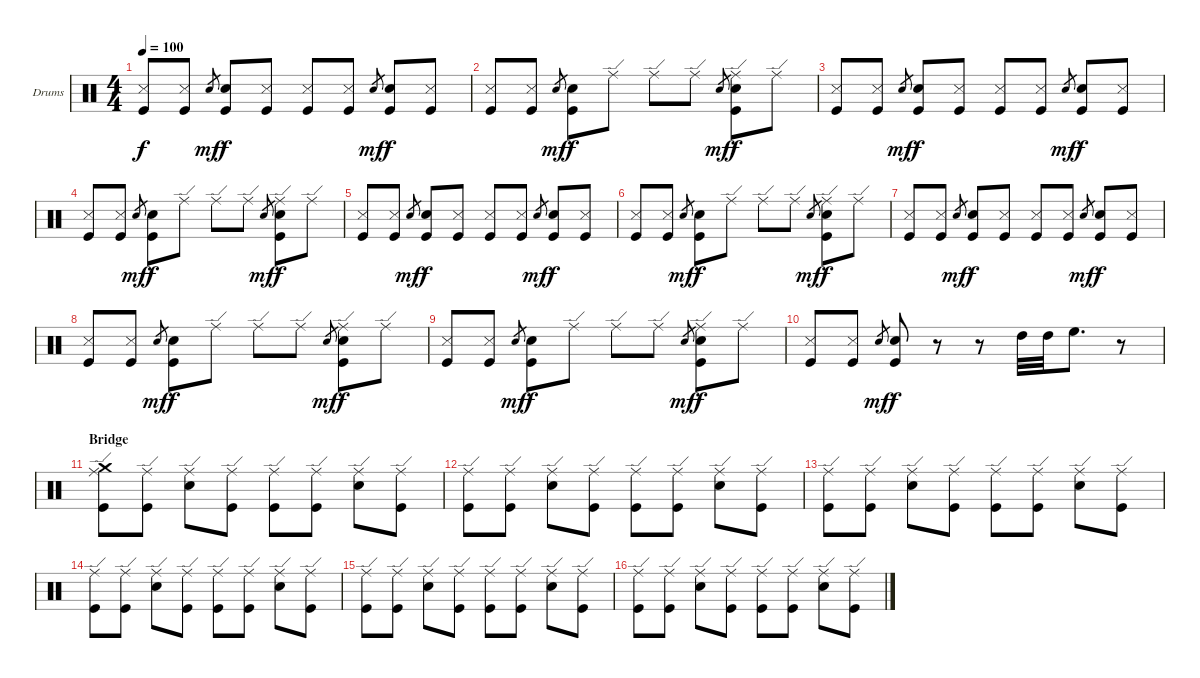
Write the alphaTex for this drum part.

\defaultSystemsLayout 4
\bracketExtendMode groupsimilarinstruments
\firstSystemTrackNameOrientation horizontal
\otherSystemsTrackNameOrientation horizontal
\track ("Drumkit" "Drums") {instrument percussion}
\staff {score}
\articulation defaults
\ts (4 4)
\tempo 100
\clef neutral
\scale
1.02648
\ks c
("Snare (side stick) 3" "Kick (hit)").8{dy f} ("Snare (side stick) 3" "Kick (hit)").8 "Snare (hit) 2".8{gr dy mf} ("Snare (hit) 2" "Kick (hit)").8{dy f} ("Snare (side stick) 3" "Kick (hit)").8 ("Snare (side stick) 3" "Kick (hit)").8 ("Snare (side stick) 3" "Kick (hit)").8 "Snare (hit) 2".8{gr dy mf} ("Snare (hit) 2" "Kick (hit)").8{dy f} ("Snare (side stick) 3" "Kick (hit)").8 |
\scale
0.973518 ("Snare (side stick) 3" "Kick (hit)").8 ("Snare (side stick) 3" "Kick (hit)").8 "Snare (hit) 2".8{gr dy mf} ("Snare (hit) 2" "Kick (hit)").8{dy f} "Ride (edge)".8 "Ride (edge)".8 "Ride (edge)".8 "Snare (hit) 2".8{gr dy mf} ("Ride (edge)" "Snare (hit) 2" "Kick (hit)").8{dy f} "Ride (edge)".8 |
\scale
1.02648 ("Snare (side stick) 3" "Kick (hit)").8 ("Snare (side stick) 3" "Kick (hit)").8 "Snare (hit) 2".8{gr dy mf} ("Snare (hit) 2" "Kick (hit)").8{dy f} ("Snare (side stick) 3" "Kick (hit)").8 ("Snare (side stick) 3" "Kick (hit)").8 ("Snare (side stick) 3" "Kick (hit)").8 "Snare (hit) 2".8{gr dy mf} ("Snare (hit) 2" "Kick (hit)").8{dy f} ("Snare (side stick) 3" "Kick (hit)").8 |
\scale
0.973518 ("Snare (side stick) 3" "Kick (hit)").8 ("Snare (side stick) 3" "Kick (hit)").8 "Snare (hit) 2".8{gr dy mf} ("Snare (hit) 2" "Kick (hit)").8{dy f} "Ride (edge)".8 "Ride (edge)".8 "Ride (edge)".8 "Snare (hit) 2".8{gr dy mf} ("Ride (edge)" "Snare (hit) 2" "Kick (hit)").8{dy f} "Ride (edge)".8 |
\scale
1.02648 ("Snare (side stick) 3" "Kick (hit)").8 ("Snare (side stick) 3" "Kick (hit)").8 "Snare (hit) 2".8{gr dy mf} ("Snare (hit) 2" "Kick (hit)").8{dy f} ("Snare (side stick) 3" "Kick (hit)").8 ("Snare (side stick) 3" "Kick (hit)").8 ("Snare (side stick) 3" "Kick (hit)").8 "Snare (hit) 2".8{gr dy mf} ("Snare (hit) 2" "Kick (hit)").8{dy f} ("Snare (side stick) 3" "Kick (hit)").8 |
\scale
0.973518 ("Snare (side stick) 3" "Kick (hit)").8 ("Snare (side stick) 3" "Kick (hit)").8 "Snare (hit) 2".8{gr dy mf} ("Snare (hit) 2" "Kick (hit)").8{dy f} "Ride (edge)".8 "Ride (edge)".8 "Ride (edge)".8 "Snare (hit) 2".8{gr dy mf} ("Ride (edge)" "Snare (hit) 2" "Kick (hit)").8{dy f} "Ride (edge)".8 |
\scale
1.02648 ("Snare (side stick) 3" "Kick (hit)").8 ("Snare (side stick) 3" "Kick (hit)").8 "Snare (hit) 2".8{gr dy mf} ("Snare (hit) 2" "Kick (hit)").8{dy f} ("Snare (side stick) 3" "Kick (hit)").8 ("Snare (side stick) 3" "Kick (hit)").8 ("Snare (side stick) 3" "Kick (hit)").8 "Snare (hit) 2".8{gr dy mf} ("Snare (hit) 2" "Kick (hit)").8{dy f} ("Snare (side stick) 3" "Kick (hit)").8 |
\scale
0.973518 ("Snare (side stick) 3" "Kick (hit)").8 ("Snare (side stick) 3" "Kick (hit)").8 "Snare (hit) 2".8{gr dy mf} ("Snare (hit) 2" "Kick (hit)").8{dy f} "Ride (edge)".8 "Ride (edge)".8 "Ride (edge)".8 "Snare (hit) 2".8{gr dy mf} ("Ride (edge)" "Snare (hit) 2" "Kick (hit)").8{dy f} "Ride (edge)".8 |
\scale
1.02648 ("Snare (side stick) 3" "Kick (hit)").8 ("Snare (side stick) 3" "Kick (hit)").8 "Snare (hit) 2".8{gr dy mf} ("Snare (hit) 2" "Kick (hit)").8{dy f} "Ride (edge)".8 "Ride (edge)".8 "Ride (edge)".8 "Snare (hit) 2".8{gr dy mf} ("Ride (edge)" "Snare (hit) 2" "Kick (hit)").8{dy f} "Ride (edge)".8 |
\scale
0.973518 ("Snare (side stick) 3" "Kick (hit)").8 ("Snare (side stick) 3" "Kick (hit)").8 "Snare (hit) 2".8{gr dy mf} ("Snare (hit) 2" "Kick (hit)").8{dy f} r.8 r.8 "High Tom (hit)".32 "High Tom (hit)".32 "High Floor Tom (hit)".8{d} r.8 |
\section ("" "Bridge")
\scale
1.02648 ("Ride (edge)" "Crash medium (hit)" "Kick (hit)").8 ("Ride (edge)" "Kick (hit)").8 ("Ride (edge)" "Snare (hit) 2").8 ("Ride (edge)" "Kick (hit)").8 ("Ride (edge)" "Kick (hit)").8 ("Ride (edge)" "Kick (hit)").8 ("Ride (edge)" "Snare (hit) 2").8 ("Ride (edge)" "Kick (hit)").8 |
\scale
0.973518 ("Ride (edge)" "Kick (hit)").8 ("Ride (edge)" "Kick (hit)").8 ("Ride (edge)" "Snare (hit) 2").8 ("Ride (edge)" "Kick (hit)").8 ("Ride (edge)" "Kick (hit)").8 ("Ride (edge)" "Kick (hit)").8 ("Ride (edge)" "Snare (hit) 2").8 ("Ride (edge)" "Kick (hit)").8 |
\scale
1.02648 ("Ride (edge)" "Kick (hit)").8 ("Ride (edge)" "Kick (hit)").8 ("Ride (edge)" "Snare (hit) 2").8 ("Ride (edge)" "Kick (hit)").8 ("Ride (edge)" "Kick (hit)").8 ("Ride (edge)" "Kick (hit)").8 ("Ride (edge)" "Snare (hit) 2").8 ("Ride (edge)" "Kick (hit)").8 |
\scale
0.973518 ("Ride (edge)" "Kick (hit)").8 ("Ride (edge)" "Kick (hit)").8 ("Ride (edge)" "Snare (hit) 2").8 ("Ride (edge)" "Kick (hit)").8 ("Ride (edge)" "Kick (hit)").8 ("Ride (edge)" "Kick (hit)").8 ("Ride (edge)" "Snare (hit) 2").8 ("Ride (edge)" "Kick (hit)").8 |
\scale
1.02648 ("Ride (edge)" "Kick (hit)").8 ("Ride (edge)" "Kick (hit)").8 ("Ride (edge)" "Snare (hit) 2").8 ("Ride (edge)" "Kick (hit)").8 ("Ride (edge)" "Kick (hit)").8 ("Ride (edge)" "Kick (hit)").8 ("Ride (edge)" "Snare (hit) 2").8 ("Ride (edge)" "Kick (hit)").8 |
\scale
0.973518 ("Ride (edge)" "Kick (hit)").8 ("Ride (edge)" "Kick (hit)").8 ("Ride (edge)" "Snare (hit) 2").8 ("Ride (edge)" "Kick (hit)").8 ("Ride (edge)" "Kick (hit)").8 ("Ride (edge)" "Kick (hit)").8 ("Ride (edge)" "Snare (hit) 2").8 ("Ride (edge)" "Kick (hit)").8
